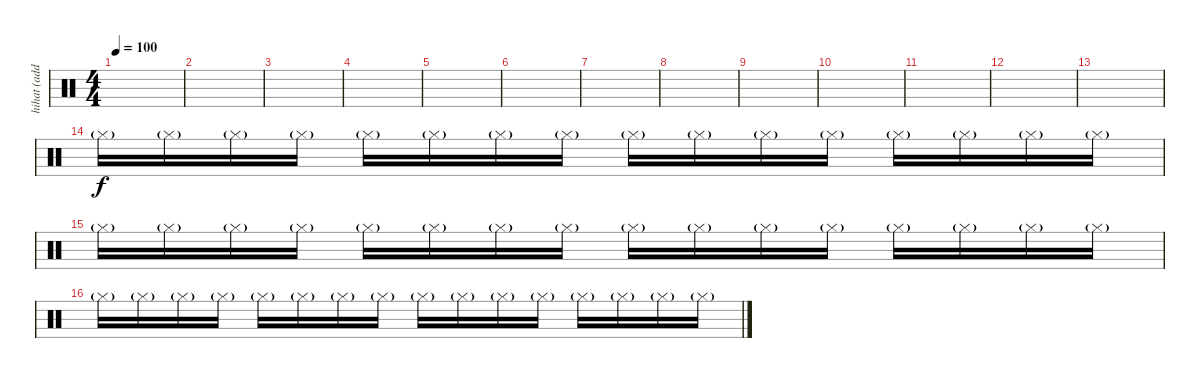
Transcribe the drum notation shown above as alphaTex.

\track ("hihat (additional)" "hihat (add") {instrument percussion}
\staff {score}
\articulation defaults
\ts (4 4)
\tempo 100
\clef neutral
\ks c
|
|
|
|
|
|
|
|
|
|
|
|
|
"Hi-Hat (closed)"{g}.16 "Hi-Hat (closed)"{g}.16 "Hi-Hat (closed)"{g}.16 "Hi-Hat (closed)"{g}.16 "Hi-Hat (closed)"{g}.16 "Hi-Hat (closed)"{g}.16 "Hi-Hat (closed)"{g}.16 "Hi-Hat (closed)"{g}.16 "Hi-Hat (closed)"{g}.16 "Hi-Hat (closed)"{g}.16 "Hi-Hat (closed)"{g}.16 "Hi-Hat (closed)"{g}.16 "Hi-Hat (closed)"{g}.16 "Hi-Hat (closed)"{g}.16 "Hi-Hat (closed)"{g}.16 "Hi-Hat (closed)"{g}.16 |
"Hi-Hat (closed)"{g}.16 "Hi-Hat (closed)"{g}.16 "Hi-Hat (closed)"{g}.16 "Hi-Hat (closed)"{g}.16 "Hi-Hat (closed)"{g}.16 "Hi-Hat (closed)"{g}.16 "Hi-Hat (closed)"{g}.16 "Hi-Hat (closed)"{g}.16 "Hi-Hat (closed)"{g}.16 "Hi-Hat (closed)"{g}.16 "Hi-Hat (closed)"{g}.16 "Hi-Hat (closed)"{g}.16 "Hi-Hat (closed)"{g}.16 "Hi-Hat (closed)"{g}.16 "Hi-Hat (closed)"{g}.16 "Hi-Hat (closed)"{g}.16 |
"Hi-Hat (closed)"{g}.16 "Hi-Hat (closed)"{g}.16 "Hi-Hat (closed)"{g}.16 "Hi-Hat (closed)"{g}.16 "Hi-Hat (closed)"{g}.16 "Hi-Hat (closed)"{g}.16 "Hi-Hat (closed)"{g}.16 "Hi-Hat (closed)"{g}.16 "Hi-Hat (closed)"{g}.16 "Hi-Hat (closed)"{g}.16 "Hi-Hat (closed)"{g}.16 "Hi-Hat (closed)"{g}.16 "Hi-Hat (closed)"{g}.16 "Hi-Hat (closed)"{g}.16 "Hi-Hat (closed)"{g}.16 "Hi-Hat (closed)"{g}.16
